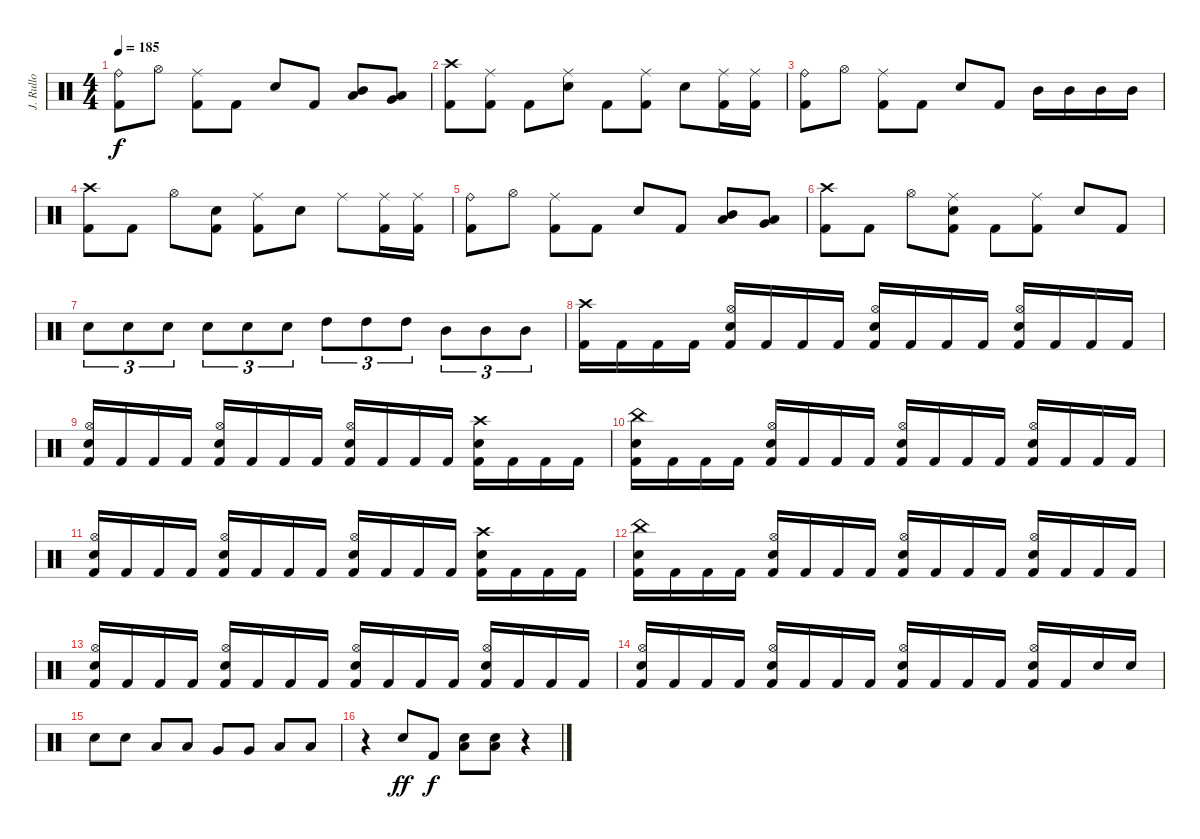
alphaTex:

\track ("J. Rullo" "J. Rullo") {instrument percussion}
\staff {score}
\articulation defaults
\ts (4 4)
\tempo 185
\clef neutral
\ks c
("Ride (bell)" "Kick (hit) 2").8{dy f} "Hi-Hat (open)".8 ("Ride (middle)" "Kick (hit) 2").8 "Kick (hit) 2".8 "Snare (hit) 2".8 "Kick (hit) 2".8 ("Mid Tom (hit)" "Low Tom (hit)").8 ("Low Tom (hit)" "Very Low Tom (hit)").8 |
("Crash high (hit)" "Kick (hit) 2").8 ("Ride (middle)" "Kick (hit) 2").8 "Kick (hit) 2".8 ("Snare (hit) 2" "Ride (middle)").8 "Kick (hit) 2".8 ("Ride (middle)" "Kick (hit) 2").8 "Snare (hit) 2".8 ("Ride (middle)" "Kick (hit) 2").16 ("Ride (middle)" "Kick (hit) 2").16 |
("Ride (bell)" "Kick (hit) 2").8 "Hi-Hat (open)".8 ("Ride (middle)" "Kick (hit) 2").8 "Kick (hit) 2".8 "Snare (hit) 2".8 "Kick (hit) 2".8 "Mid Tom (hit)".16 "Mid Tom (hit)".16 "Mid Tom (hit)".16 "Mid Tom (hit)".16 |
("Crash high (hit)" "Kick (hit) 2").8 "Kick (hit) 2".8 "Hi-Hat (open)".8 ("Snare (hit) 2" "Kick (hit) 2").8 ("Ride (middle)" "Kick (hit) 2").8 "Snare (hit) 2".8 "Ride (middle)".8 ("Ride (middle)" "Kick (hit) 2").16 ("Ride (middle)" "Kick (hit) 2").16 |
("Ride (bell)" "Kick (hit) 2").8 "Hi-Hat (open)".8 ("Ride (middle)" "Kick (hit) 2").8 "Kick (hit) 2".8 "Snare (hit) 2".8 "Kick (hit) 2".8 ("Mid Tom (hit)" "Low Tom (hit)").8 ("Low Tom (hit)" "Very Low Tom (hit)").8 |
("Crash high (hit)" "Kick (hit) 2").8 "Kick (hit) 2".8 "Hi-Hat (open)".8 ("Ride (middle)" "Snare (hit) 2" "Kick (hit) 2").8 "Kick (hit) 2".8 ("Ride (middle)" "Kick (hit) 2").8 "Snare (hit) 2".8 "Kick (hit) 2".8 |
"Snare (hit) 2".8{tu (3 2)} "Snare (hit) 2".8{tu (3 2)} "Snare (hit) 2".8{tu (3 2)} "Snare (hit) 2".8{tu (3 2)} "Snare (hit) 2".8{tu (3 2)} "Snare (hit) 2".8{tu (3 2)} "High Tom (hit)".8{tu (3 2)} "High Tom (hit)".8{tu (3 2)} "High Tom (hit)".8{tu (3 2)} "Mid Tom (hit)".8{tu (3 2)} "Mid Tom (hit)".8{tu (3 2)} "Mid Tom (hit)".8{tu (3 2)} |
("Crash high (hit)" "Kick (hit) 2").16 "Kick (hit) 2".16 "Kick (hit) 2".16 "Kick (hit) 2".16 ("Hi-Hat (open)" "Snare (hit) 2" "Kick (hit) 2").16 "Kick (hit) 2".16 "Kick (hit) 2".16 "Kick (hit) 2".16 ("Hi-Hat (open)" "Snare (hit) 2" "Kick (hit) 2").16 "Kick (hit) 2".16 "Kick (hit) 2".16 "Kick (hit) 2".16 ("Hi-Hat (open)" "Snare (hit) 2" "Kick (hit) 2").16 "Kick (hit) 2".16 "Kick (hit) 2".16 "Kick (hit) 2".16 |
("Hi-Hat (open)" "Snare (hit) 2" "Kick (hit) 2").16 "Kick (hit) 2".16 "Kick (hit) 2".16 "Kick (hit) 2".16 ("Hi-Hat (open)" "Snare (hit) 2" "Kick (hit) 2").16 "Kick (hit) 2".16 "Kick (hit) 2".16 "Kick (hit) 2".16 ("Hi-Hat (open)" "Snare (hit) 2" "Kick (hit) 2").16 "Kick (hit) 2".16 "Kick (hit) 2".16 "Kick (hit) 2".16 ("Crash high (hit)" "Snare (hit) 2" "Kick (hit) 2").16 "Kick (hit) 2".16 "Kick (hit) 2".16 "Kick (hit) 2".16 |
("China (hit)" "Snare (hit) 2" "Kick (hit) 2").16 "Kick (hit) 2".16 "Kick (hit) 2".16 "Kick (hit) 2".16 ("Hi-Hat (open)" "Snare (hit) 2" "Kick (hit) 2").16 "Kick (hit) 2".16 "Kick (hit) 2".16 "Kick (hit) 2".16 ("Hi-Hat (open)" "Snare (hit) 2" "Kick (hit) 2").16 "Kick (hit) 2".16 "Kick (hit) 2".16 "Kick (hit) 2".16 ("Hi-Hat (open)" "Snare (hit) 2" "Kick (hit) 2").16 "Kick (hit) 2".16 "Kick (hit) 2".16 "Kick (hit) 2".16 |
("Hi-Hat (open)" "Snare (hit) 2" "Kick (hit) 2").16 "Kick (hit) 2".16 "Kick (hit) 2".16 "Kick (hit) 2".16 ("Hi-Hat (open)" "Snare (hit) 2" "Kick (hit) 2").16 "Kick (hit) 2".16 "Kick (hit) 2".16 "Kick (hit) 2".16 ("Hi-Hat (open)" "Snare (hit) 2" "Kick (hit) 2").16 "Kick (hit) 2".16 "Kick (hit) 2".16 "Kick (hit) 2".16 ("Crash high (hit)" "Snare (hit) 2" "Kick (hit) 2").16 "Kick (hit) 2".16 "Kick (hit) 2".16 "Kick (hit) 2".16 |
("China (hit)" "Snare (hit) 2" "Kick (hit) 2").16 "Kick (hit) 2".16 "Kick (hit) 2".16 "Kick (hit) 2".16 ("Hi-Hat (open)" "Snare (hit) 2" "Kick (hit) 2").16 "Kick (hit) 2".16 "Kick (hit) 2".16 "Kick (hit) 2".16 ("Hi-Hat (open)" "Snare (hit) 2" "Kick (hit) 2").16 "Kick (hit) 2".16 "Kick (hit) 2".16 "Kick (hit) 2".16 ("Hi-Hat (open)" "Snare (hit) 2" "Kick (hit) 2").16 "Kick (hit) 2".16 "Kick (hit) 2".16 "Kick (hit) 2".16 |
("Hi-Hat (open)" "Snare (hit) 2" "Kick (hit) 2").16 "Kick (hit) 2".16 "Kick (hit) 2".16 "Kick (hit) 2".16 ("Hi-Hat (open)" "Snare (hit) 2" "Kick (hit) 2").16 "Kick (hit) 2".16 "Kick (hit) 2".16 "Kick (hit) 2".16 ("Hi-Hat (open)" "Snare (hit) 2" "Kick (hit) 2").16 "Kick (hit) 2".16 "Kick (hit) 2".16 "Kick (hit) 2".16 ("Hi-Hat (open)" "Snare (hit) 2" "Kick (hit) 2").16 "Kick (hit) 2".16 "Kick (hit) 2".16 "Kick (hit) 2".16 |
("Hi-Hat (open)" "Snare (hit) 2" "Kick (hit) 2").16 "Kick (hit) 2".16 "Kick (hit) 2".16 "Kick (hit) 2".16 ("Hi-Hat (open)" "Snare (hit) 2" "Kick (hit) 2").16 "Kick (hit) 2".16 "Kick (hit) 2".16 "Kick (hit) 2".16 ("Hi-Hat (open)" "Snare (hit) 2" "Kick (hit) 2").16 "Kick (hit) 2".16 "Kick (hit) 2".16 "Kick (hit) 2".16 ("Hi-Hat (open)" "Snare (hit) 2" "Kick (hit) 2").16 "Kick (hit) 2".16 "Snare (hit) 2".16 "Snare (hit) 2".16 |
"Snare (hit) 2".8 "Snare (hit) 2".8 "Low Tom (hit)".8 "Low Tom (hit)".8 "Very Low Tom (hit)".8 "Very Low Tom (hit)".8 "Low Tom (hit)".8 "Low Tom (hit)".8 |
r.4 "Snare (hit) 2".8{dy ff} "Kick (hit) 2".8{dy f} ("Low Tom (hit)" "Snare (hit) 2").8 ("Low Tom (hit)" "Snare (hit) 2").8 r.4
